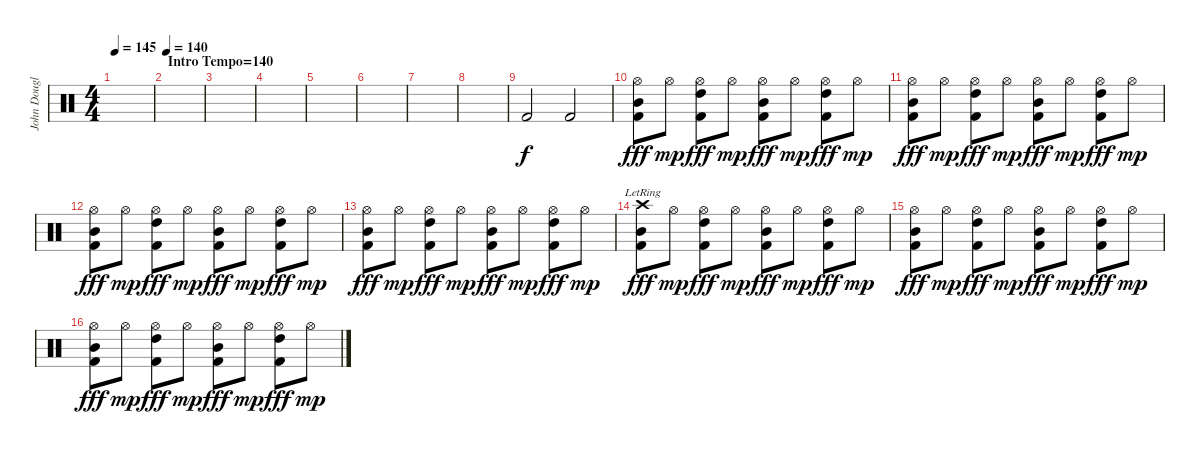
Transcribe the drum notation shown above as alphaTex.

\track ("John Douglas (Drums)" "John Dougl") {instrument percussion}
\staff {score}
\articulation defaults
\ts (4 4)
\tempo 145
\clef neutral
\ks c
|
\section ("" "Intro Tempo=140")
\tempo 140
|
|
|
|
|
|
|
"Kick (hit) 2".2 "Kick (hit) 2".2 |
("Hi-Hat (open)" "Mid Tom (hit)" "Kick (hit) 2").8{dy fff} "Hi-Hat (open)".8{dy mp} ("Hi-Hat (open)" "High Tom (hit)" "Kick (hit) 2").8{dy fff} "Hi-Hat (open)".8{dy mp} ("Hi-Hat (open)" "Mid Tom (hit)" "Kick (hit) 2").8{dy fff} "Hi-Hat (open)".8{dy mp} ("Hi-Hat (open)" "High Tom (hit)" "Kick (hit) 2").8{dy fff} "Hi-Hat (open)".8{dy mp} |
("Hi-Hat (open)" "Mid Tom (hit)" "Kick (hit) 2").8{dy fff} "Hi-Hat (open)".8{dy mp} ("Hi-Hat (open)" "High Tom (hit)" "Kick (hit) 2").8{dy fff} "Hi-Hat (open)".8{dy mp} ("Hi-Hat (open)" "Mid Tom (hit)" "Kick (hit) 2").8{dy fff} "Hi-Hat (open)".8{dy mp} ("Hi-Hat (open)" "High Tom (hit)" "Kick (hit) 2").8{dy fff} "Hi-Hat (open)".8{dy mp} |
("Hi-Hat (open)" "Mid Tom (hit)" "Kick (hit) 2").8{dy fff} "Hi-Hat (open)".8{dy mp} ("Hi-Hat (open)" "High Tom (hit)" "Kick (hit) 2").8{dy fff} "Hi-Hat (open)".8{dy mp} ("Hi-Hat (open)" "Mid Tom (hit)" "Kick (hit) 2").8{dy fff} "Hi-Hat (open)".8{dy mp} ("Hi-Hat (open)" "High Tom (hit)" "Kick (hit) 2").8{dy fff} "Hi-Hat (open)".8{dy mp} |
("Hi-Hat (open)" "Mid Tom (hit)" "Kick (hit) 2").8{dy fff} "Hi-Hat (open)".8{dy mp} ("Hi-Hat (open)" "High Tom (hit)" "Kick (hit) 2").8{dy fff} "Hi-Hat (open)".8{dy mp} ("Hi-Hat (open)" "Mid Tom (hit)" "Kick (hit) 2").8{dy fff} "Hi-Hat (open)".8{dy mp} ("Hi-Hat (open)" "High Tom (hit)" "Kick (hit) 2").8{dy fff} "Hi-Hat (open)".8{dy mp} |
("Crash high (hit)"{lr} "Mid Tom (hit)" "Kick (hit) 2").8{dy fff} "Hi-Hat (open)".8{dy mp} ("Hi-Hat (open)" "High Tom (hit)" "Kick (hit) 2").8{dy fff} "Hi-Hat (open)".8{dy mp} ("Hi-Hat (open)" "Mid Tom (hit)" "Kick (hit) 2").8{dy fff} "Hi-Hat (open)".8{dy mp} ("Hi-Hat (open)" "High Tom (hit)" "Kick (hit) 2").8{dy fff} "Hi-Hat (open)".8{dy mp} |
("Hi-Hat (open)" "Mid Tom (hit)" "Kick (hit) 2").8{dy fff} "Hi-Hat (open)".8{dy mp} ("Hi-Hat (open)" "High Tom (hit)" "Kick (hit) 2").8{dy fff} "Hi-Hat (open)".8{dy mp} ("Hi-Hat (open)" "Mid Tom (hit)" "Kick (hit) 2").8{dy fff} "Hi-Hat (open)".8{dy mp} ("Hi-Hat (open)" "High Tom (hit)" "Kick (hit) 2").8{dy fff} "Hi-Hat (open)".8{dy mp} |
("Hi-Hat (open)" "Mid Tom (hit)" "Kick (hit) 2").8{dy fff} "Hi-Hat (open)".8{dy mp} ("Hi-Hat (open)" "High Tom (hit)" "Kick (hit) 2").8{dy fff} "Hi-Hat (open)".8{dy mp} ("Hi-Hat (open)" "Mid Tom (hit)" "Kick (hit) 2").8{dy fff} "Hi-Hat (open)".8{dy mp} ("Hi-Hat (open)" "High Tom (hit)" "Kick (hit) 2").8{dy fff} "Hi-Hat (open)".8{dy mp}
